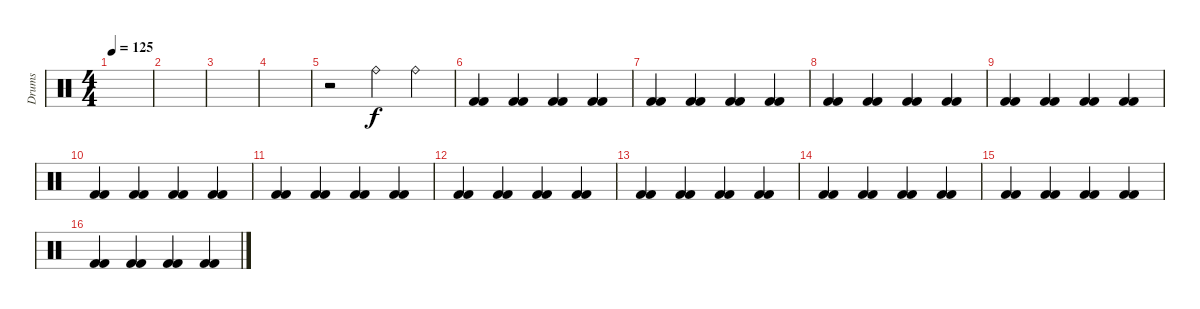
\track ("Drums" "Drums") {instrument percussion}
\staff {score}
\articulation defaults
\ts (4 4)
\tempo 125
\clef neutral
\ks c
|
|
|
|
r.2 "Ride (bell)".4 "Ride (bell)".4 |
("Kick (hit) 2" "Kick (hit) 2").4 ("Kick (hit) 2" "Kick (hit) 2").4 ("Kick (hit) 2" "Kick (hit) 2").4 ("Kick (hit) 2" "Kick (hit) 2").4 |
("Kick (hit) 2" "Kick (hit) 2").4 ("Kick (hit) 2" "Kick (hit) 2").4 ("Kick (hit) 2" "Kick (hit) 2").4 ("Kick (hit) 2" "Kick (hit) 2").4 |
("Kick (hit) 2" "Kick (hit) 2").4 ("Kick (hit) 2" "Kick (hit) 2").4 ("Kick (hit) 2" "Kick (hit) 2").4 ("Kick (hit) 2" "Kick (hit) 2").4 |
("Kick (hit) 2" "Kick (hit) 2").4 ("Kick (hit) 2" "Kick (hit) 2").4 ("Kick (hit) 2" "Kick (hit) 2").4 ("Kick (hit) 2" "Kick (hit) 2").4 |
("Kick (hit) 2" "Kick (hit) 2").4 ("Kick (hit) 2" "Kick (hit) 2").4 ("Kick (hit) 2" "Kick (hit) 2").4 ("Kick (hit) 2" "Kick (hit) 2").4 |
("Kick (hit) 2" "Kick (hit) 2").4 ("Kick (hit) 2" "Kick (hit) 2").4 ("Kick (hit) 2" "Kick (hit) 2").4 ("Kick (hit) 2" "Kick (hit) 2").4 |
("Kick (hit) 2" "Kick (hit) 2").4 ("Kick (hit) 2" "Kick (hit) 2").4 ("Kick (hit) 2" "Kick (hit) 2").4 ("Kick (hit) 2" "Kick (hit) 2").4 |
("Kick (hit) 2" "Kick (hit) 2").4 ("Kick (hit) 2" "Kick (hit) 2").4 ("Kick (hit) 2" "Kick (hit) 2").4 ("Kick (hit) 2" "Kick (hit) 2").4 |
("Kick (hit) 2" "Kick (hit) 2").4 ("Kick (hit) 2" "Kick (hit) 2").4 ("Kick (hit) 2" "Kick (hit) 2").4 ("Kick (hit) 2" "Kick (hit) 2").4 |
("Kick (hit) 2" "Kick (hit) 2").4 ("Kick (hit) 2" "Kick (hit) 2").4 ("Kick (hit) 2" "Kick (hit) 2").4 ("Kick (hit) 2" "Kick (hit) 2").4 |
("Kick (hit) 2" "Kick (hit) 2").4 ("Kick (hit) 2" "Kick (hit) 2").4 ("Kick (hit) 2" "Kick (hit) 2").4 ("Kick (hit) 2" "Kick (hit) 2").4
